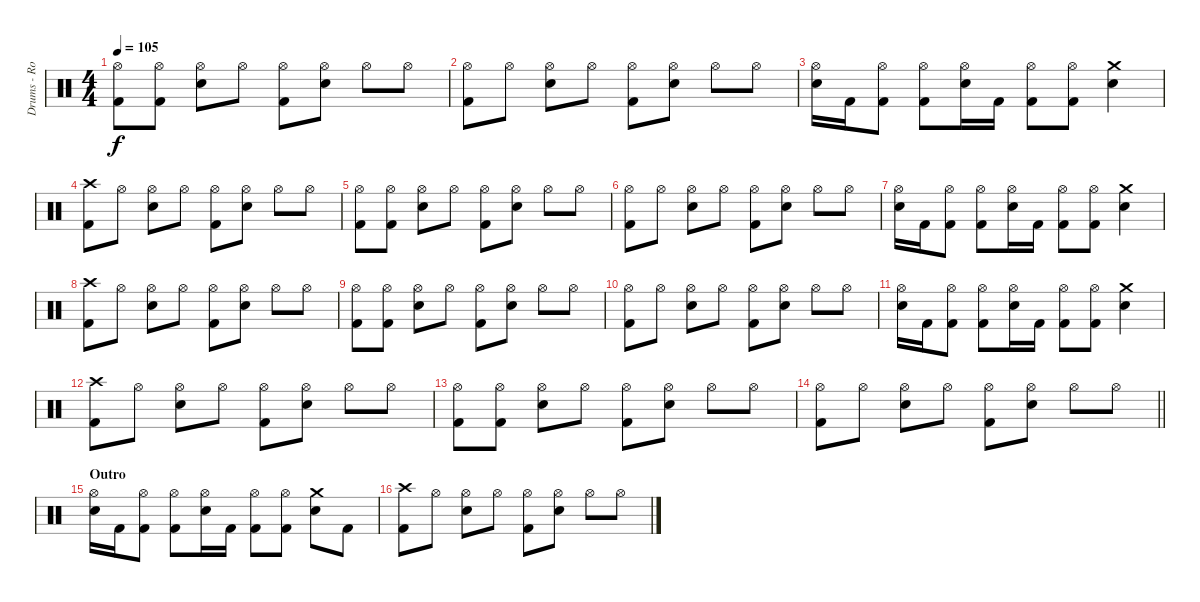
\track ("Drums - Rob Bourdon" "Drums - Ro") {instrument percussion}
\staff {score}
\articulation defaults
\ts (4 4)
\tempo 105
\clef neutral
\ks c
("Hi-Hat (open)" "Kick (hit) 2").8{dy f} ("Hi-Hat (open)" "Kick (hit) 2").8 ("Hi-Hat (open)" "Snare (hit) 2").8 "Hi-Hat (open)".8 ("Hi-Hat (open)" "Kick (hit) 2").8 ("Hi-Hat (open)" "Snare (hit) 2").8 "Hi-Hat (open)".8 "Hi-Hat (open)".8 |
("Hi-Hat (open)" "Kick (hit) 2").8 "Hi-Hat (open)".8 ("Hi-Hat (open)" "Snare (hit) 2").8 "Hi-Hat (open)".8 ("Hi-Hat (open)" "Kick (hit) 2").8 ("Hi-Hat (open)" "Snare (hit) 2").8 "Hi-Hat (open)".8 "Hi-Hat (open)".8 |
("Hi-Hat (open)" "Snare (hit) 2").16 "Kick (hit) 2".16 ("Hi-Hat (open)" "Kick (hit) 2").8 ("Hi-Hat (open)" "Kick (hit) 2").8 ("Hi-Hat (open)" "Snare (hit) 2").16 "Kick (hit) 2".16 ("Hi-Hat (open)" "Kick (hit) 2").8 ("Hi-Hat (open)" "Kick (hit) 2").8 ("Crash medium (hit)" "Snare (hit) 2").4 |
("Crash high (hit)" "Kick (hit) 2").8 "Hi-Hat (open)".8 ("Hi-Hat (open)" "Snare (hit) 2").8 "Hi-Hat (open)".8 ("Hi-Hat (open)" "Kick (hit) 2").8 ("Hi-Hat (open)" "Snare (hit) 2").8 "Hi-Hat (open)".8 "Hi-Hat (open)".8 |
("Hi-Hat (open)" "Kick (hit) 2").8 ("Hi-Hat (open)" "Kick (hit) 2").8 ("Hi-Hat (open)" "Snare (hit) 2").8 "Hi-Hat (open)".8 ("Hi-Hat (open)" "Kick (hit) 2").8 ("Hi-Hat (open)" "Snare (hit) 2").8 "Hi-Hat (open)".8 "Hi-Hat (open)".8 |
("Hi-Hat (open)" "Kick (hit) 2").8 "Hi-Hat (open)".8 ("Hi-Hat (open)" "Snare (hit) 2").8 "Hi-Hat (open)".8 ("Hi-Hat (open)" "Kick (hit) 2").8 ("Hi-Hat (open)" "Snare (hit) 2").8 "Hi-Hat (open)".8 "Hi-Hat (open)".8 |
("Hi-Hat (open)" "Snare (hit) 2").16 "Kick (hit) 2".16 ("Hi-Hat (open)" "Kick (hit) 2").8 ("Hi-Hat (open)" "Kick (hit) 2").8 ("Hi-Hat (open)" "Snare (hit) 2").16 "Kick (hit) 2".16 ("Hi-Hat (open)" "Kick (hit) 2").8 ("Hi-Hat (open)" "Kick (hit) 2").8 ("Crash medium (hit)" "Snare (hit) 2").4 |
("Crash high (hit)" "Kick (hit) 2").8 "Hi-Hat (open)".8 ("Hi-Hat (open)" "Snare (hit) 2").8 "Hi-Hat (open)".8 ("Hi-Hat (open)" "Kick (hit) 2").8 ("Hi-Hat (open)" "Snare (hit) 2").8 "Hi-Hat (open)".8 "Hi-Hat (open)".8 |
("Hi-Hat (open)" "Kick (hit) 2").8 ("Hi-Hat (open)" "Kick (hit) 2").8 ("Hi-Hat (open)" "Snare (hit) 2").8 "Hi-Hat (open)".8 ("Hi-Hat (open)" "Kick (hit) 2").8 ("Hi-Hat (open)" "Snare (hit) 2").8 "Hi-Hat (open)".8 "Hi-Hat (open)".8 |
("Hi-Hat (open)" "Kick (hit) 2").8 "Hi-Hat (open)".8 ("Hi-Hat (open)" "Snare (hit) 2").8 "Hi-Hat (open)".8 ("Hi-Hat (open)" "Kick (hit) 2").8 ("Hi-Hat (open)" "Snare (hit) 2").8 "Hi-Hat (open)".8 "Hi-Hat (open)".8 |
("Hi-Hat (open)" "Snare (hit) 2").16 "Kick (hit) 2".16 ("Hi-Hat (open)" "Kick (hit) 2").8 ("Hi-Hat (open)" "Kick (hit) 2").8 ("Hi-Hat (open)" "Snare (hit) 2").16 "Kick (hit) 2".16 ("Hi-Hat (open)" "Kick (hit) 2").8 ("Hi-Hat (open)" "Kick (hit) 2").8 ("Crash medium (hit)" "Snare (hit) 2").4 |
("Crash high (hit)" "Kick (hit) 2").8 "Hi-Hat (open)".8 ("Hi-Hat (open)" "Snare (hit) 2").8 "Hi-Hat (open)".8 ("Hi-Hat (open)" "Kick (hit) 2").8 ("Hi-Hat (open)" "Snare (hit) 2").8 "Hi-Hat (open)".8 "Hi-Hat (open)".8 |
("Hi-Hat (open)" "Kick (hit) 2").8 ("Hi-Hat (open)" "Kick (hit) 2").8 ("Hi-Hat (open)" "Snare (hit) 2").8 "Hi-Hat (open)".8 ("Hi-Hat (open)" "Kick (hit) 2").8 ("Hi-Hat (open)" "Snare (hit) 2").8 "Hi-Hat (open)".8 "Hi-Hat (open)".8 |
\barLineRight lightlight
("Hi-Hat (open)" "Kick (hit) 2").8 "Hi-Hat (open)".8 ("Hi-Hat (open)" "Snare (hit) 2").8 "Hi-Hat (open)".8 ("Hi-Hat (open)" "Kick (hit) 2").8 ("Hi-Hat (open)" "Snare (hit) 2").8 "Hi-Hat (open)".8 "Hi-Hat (open)".8 |
\section ("" "Outro")
("Hi-Hat (open)" "Snare (hit) 2").16 "Kick (hit) 2".16 ("Hi-Hat (open)" "Kick (hit) 2").8 ("Hi-Hat (open)" "Kick (hit) 2").8 ("Hi-Hat (open)" "Snare (hit) 2").16 "Kick (hit) 2".16 ("Hi-Hat (open)" "Kick (hit) 2").8 ("Hi-Hat (open)" "Kick (hit) 2").8 ("Crash medium (hit)" "Snare (hit) 2").8 "Kick (hit) 2".8 |
("Crash high (hit)" "Kick (hit) 2").8 "Hi-Hat (open)".8 ("Hi-Hat (open)" "Snare (hit) 2").8 "Hi-Hat (open)".8 ("Hi-Hat (open)" "Kick (hit) 2").8 ("Hi-Hat (open)" "Snare (hit) 2").8 "Hi-Hat (open)".8 "Hi-Hat (open)".8
